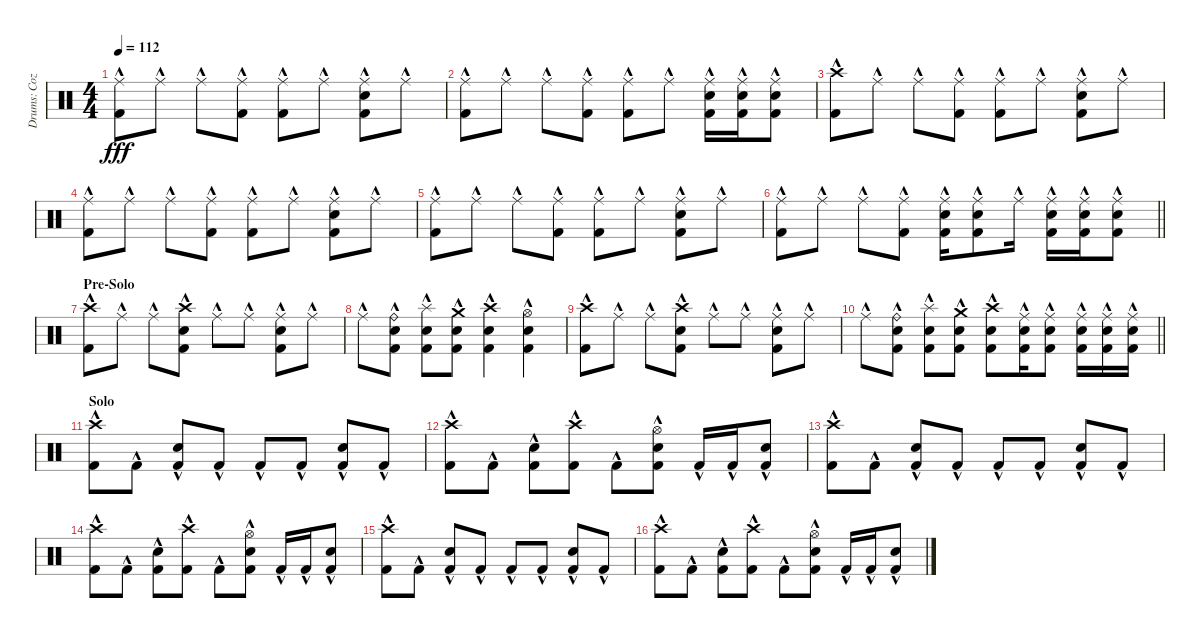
\track ("Drums: Cozy" "Drums: Coz") {instrument percussion}
\staff {score}
\articulation defaults
\ts (4 4)
\tempo 112
\clef neutral
\ks c
("Ride (middle)"{hac} "Kick (hit) 2"{hac}).8{dy fff} "Ride (middle)"{hac}.8 "Ride (middle)"{hac}.8 ("Ride (middle)"{hac} "Kick (hit) 2"{hac}).8 ("Ride (middle)"{hac} "Kick (hit) 2"{hac}).8 "Ride (middle)"{hac}.8 ("Ride (middle)"{hac} "Electric Snare (hit)"{hac} "Kick (hit) 2"{hac}).8 "Ride (middle)"{hac}.8 |
("Ride (middle)"{hac} "Kick (hit) 2"{hac}).8 "Ride (middle)"{hac}.8 "Ride (middle)"{hac}.8 ("Ride (middle)"{hac} "Kick (hit) 2"{hac}).8 ("Ride (middle)"{hac} "Kick (hit) 2"{hac}).8 "Ride (middle)"{hac}.8 ("Ride (middle)"{hac} "Electric Snare (hit)"{hac} "Kick (hit) 2"{hac}).16 ("Ride (middle)"{hac} "Electric Snare (hit)"{hac} "Kick (hit) 2"{hac}).16 ("Ride (middle)"{hac} "Electric Snare (hit)"{hac} "Kick (hit) 2"{hac}).8 |
("Crash high (hit)"{hac} "Kick (hit) 2"{hac}).8 "Ride (middle)"{hac}.8 "Ride (middle)"{hac}.8 ("Ride (middle)"{hac} "Kick (hit) 2"{hac}).8 ("Ride (middle)"{hac} "Kick (hit) 2"{hac}).8 "Ride (middle)"{hac}.8 ("Ride (middle)"{hac} "Electric Snare (hit)"{hac} "Kick (hit) 2"{hac}).8 "Ride (middle)"{hac}.8 |
("Ride (middle)"{hac} "Kick (hit) 2"{hac}).8 "Ride (middle)"{hac}.8 "Ride (middle)"{hac}.8 ("Ride (middle)"{hac} "Kick (hit) 2"{hac}).8 ("Ride (middle)"{hac} "Kick (hit) 2"{hac}).8 "Ride (middle)"{hac}.8 ("Ride (middle)"{hac} "Electric Snare (hit)"{hac} "Kick (hit) 2"{hac}).8 "Ride (middle)"{hac}.8 |
("Ride (middle)"{hac} "Kick (hit) 2"{hac}).8 "Ride (middle)"{hac}.8 "Ride (middle)"{hac}.8 ("Ride (middle)"{hac} "Kick (hit) 2"{hac}).8 ("Ride (middle)"{hac} "Kick (hit) 2"{hac}).8 "Ride (middle)"{hac}.8 ("Ride (middle)"{hac} "Electric Snare (hit)"{hac} "Kick (hit) 2"{hac}).8 "Ride (middle)"{hac}.8 |
\barLineRight lightlight
("Ride (middle)"{hac} "Kick (hit) 2"{hac}).8 "Ride (middle)"{hac}.8 "Ride (middle)"{hac}.8 ("Ride (middle)"{hac} "Kick (hit) 2"{hac}).8 ("Ride (middle)"{hac} "Electric Snare (hit)"{hac} "Kick (hit) 2"{hac}).16 ("Ride (middle)"{hac} "Electric Snare (hit)"{hac} "Kick (hit) 2"{hac}).8 "Ride (middle)"{hac}.16 ("Ride (middle)"{hac} "Electric Snare (hit)"{hac} "Kick (hit) 2"{hac}).16 ("Ride (middle)"{hac} "Electric Snare (hit)"{hac} "Kick (hit) 2"{hac}).16 ("Ride (middle)"{hac} "Electric Snare (hit)"{hac} "Kick (hit) 2"{hac}).8 |
\section ("" "Pre-Solo")
("Crash high (hit)"{hac} "Kick (hit) 2"{hac}).8 "Ride (middle)"{hac}.8 "Ride (middle)"{hac}.8 ("Crash high (hit)"{hac} "Snare (hit) 2"{hac} "Kick (hit) 2"{hac}).8 "Ride (middle)"{hac}.8 "Ride (middle)"{hac}.8 ("Ride (middle)"{hac} "Snare (hit) 2"{hac} "Kick (hit) 2"{hac}).8 "Ride (middle)"{hac}.8 |
"Ride (middle)"{hac}.8 ("Ride (bell)"{hac} "Electric Snare (hit)"{hac} "Kick (hit) 2"{hac}).8 ("Splash (hit)"{hac} "Electric Snare (hit)"{hac} "Kick (hit) 2"{hac}).8 ("Crash medium (hit)"{hac} "Electric Snare (hit)"{hac} "Kick (hit) 2"{hac}).8 ("Crash high (hit)"{hac} "Electric Snare (hit)"{hac} "Kick (hit) 2"{hac}).4 ("Hi-Hat (open)"{hac} "Snare (hit) 2"{hac} "Kick (hit) 2"{hac}).4 |
("Crash high (hit)"{hac} "Kick (hit) 2"{hac}).8 "Ride (middle)"{hac}.8 "Ride (middle)"{hac}.8 ("Crash high (hit)"{hac} "Snare (hit) 2"{hac} "Kick (hit) 2"{hac}).8 "Ride (middle)"{hac}.8 "Ride (middle)"{hac}.8 ("Ride (middle)"{hac} "Snare (hit) 2"{hac} "Kick (hit) 2"{hac}).8 "Ride (middle)"{hac}.8 |
\barLineRight lightlight "Ride (middle)"{hac}.8
("Ride (bell)"{hac} "Electric Snare (hit)"{hac} "Kick (hit) 2"{hac}).8 ("Splash (hit)"{hac} "Electric Snare (hit)"{hac} "Kick (hit) 2"{hac}).8 ("Crash medium (hit)"{hac} "Electric Snare (hit)"{hac} "Kick (hit) 2"{hac}).8 ("Crash high (hit)"{hac} "Electric Snare (hit)"{hac} "Kick (hit) 2"{hac}).8 ("Ride (middle)"{hac} "Electric Snare (hit)"{hac} "Kick (hit) 2"{hac}).16 ("Ride (middle)"{hac} "Electric Snare (hit)"{hac} "Kick (hit) 2"{hac}).8 ("Ride (middle)"{hac} "Electric Snare (hit)"{hac} "Kick (hit) 2"{hac}).16 ("Ride (middle)"{hac} "Electric Snare (hit)"{hac} "Kick (hit) 2"{hac}).16 ("Ride (middle)"{hac} "Electric Snare (hit)"{hac} "Kick (hit) 2"{hac}).16 |
\section ("" "Solo")
("Crash high (hit)"{hac} "Kick (hit) 2"{hac}).8 "Kick (hit) 2"{hac}.8 ("Snare (hit) 2"{hac} "Kick (hit) 2"{hac}).8 "Kick (hit) 2"{hac}.8 "Kick (hit) 2"{hac}.8 "Kick (hit) 2"{hac}.8 ("Snare (hit) 2"{hac} "Kick (hit) 2"{hac}).8 "Kick (hit) 2"{hac}.8 |
("Crash high (hit)"{hac} "Kick (hit) 2"{hac}).8 "Kick (hit) 2"{hac}.8 ("Snare (hit) 2"{hac} "Kick (hit) 2"{hac}).8 ("Crash high (hit)"{hac} "Kick (hit) 2"{hac}).8 "Kick (hit) 2"{hac}.8 ("Hi-Hat (open)"{hac} "Snare (hit) 2"{hac} "Kick (hit) 2"{hac}).8 "Kick (hit) 2"{hac}.16 "Kick (hit) 2"{hac}.16 ("Electric Snare (hit)"{hac} "Kick (hit) 2"{hac}).8 |
("Crash high (hit)"{hac} "Kick (hit) 2"{hac}).8 "Kick (hit) 2"{hac}.8 ("Snare (hit) 2"{hac} "Kick (hit) 2"{hac}).8 "Kick (hit) 2"{hac}.8 "Kick (hit) 2"{hac}.8 "Kick (hit) 2"{hac}.8 ("Snare (hit) 2"{hac} "Kick (hit) 2"{hac}).8 "Kick (hit) 2"{hac}.8 |
("Crash high (hit)"{hac} "Kick (hit) 2"{hac}).8 "Kick (hit) 2"{hac}.8 ("Snare (hit) 2"{hac} "Kick (hit) 2"{hac}).8 ("Crash high (hit)"{hac} "Kick (hit) 2"{hac}).8 "Kick (hit) 2"{hac}.8 ("Hi-Hat (open)"{hac} "Snare (hit) 2"{hac} "Kick (hit) 2"{hac}).8 "Kick (hit) 2"{hac}.16 "Kick (hit) 2"{hac}.16 ("Electric Snare (hit)"{hac} "Kick (hit) 2"{hac}).8 |
("Crash high (hit)"{hac} "Kick (hit) 2"{hac}).8 "Kick (hit) 2"{hac}.8 ("Snare (hit) 2"{hac} "Kick (hit) 2"{hac}).8 "Kick (hit) 2"{hac}.8 "Kick (hit) 2"{hac}.8 "Kick (hit) 2"{hac}.8 ("Snare (hit) 2"{hac} "Kick (hit) 2"{hac}).8 "Kick (hit) 2"{hac}.8 |
("Crash high (hit)"{hac} "Kick (hit) 2"{hac}).8 "Kick (hit) 2"{hac}.8 ("Snare (hit) 2"{hac} "Kick (hit) 2"{hac}).8 ("Crash high (hit)"{hac} "Kick (hit) 2"{hac}).8 "Kick (hit) 2"{hac}.8 ("Hi-Hat (open)"{hac} "Snare (hit) 2"{hac} "Kick (hit) 2"{hac}).8 "Kick (hit) 2"{hac}.16 "Kick (hit) 2"{hac}.16 ("Electric Snare (hit)"{hac} "Kick (hit) 2"{hac}).8
